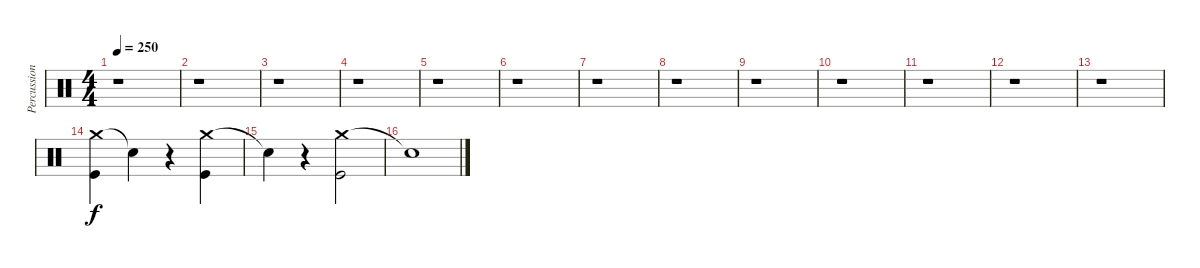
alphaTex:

\track ("Percussions" "Percussion") {instrument percussion}
\staff {score}
\articulation defaults
\ts (4 4)
\tempo 250
\clef neutral
\ks c
r.1{dy f} |
r.1 |
r.1 |
r.1 |
r.1 |
r.1 |
r.1 |
r.1 |
r.1 |
r.1 |
r.1 |
r.1 |
r.1 |
("Crash medium (hit)" "Kick (hit)").4 "Snare (hit)"{t}.4 r.4 ("Crash medium (hit)" "Kick (hit)").4 |
"Snare (hit)"{t}.4 r.4 ("Crash medium (hit)" "Kick (hit)").2 |
"Snare (hit)"{t}.1
